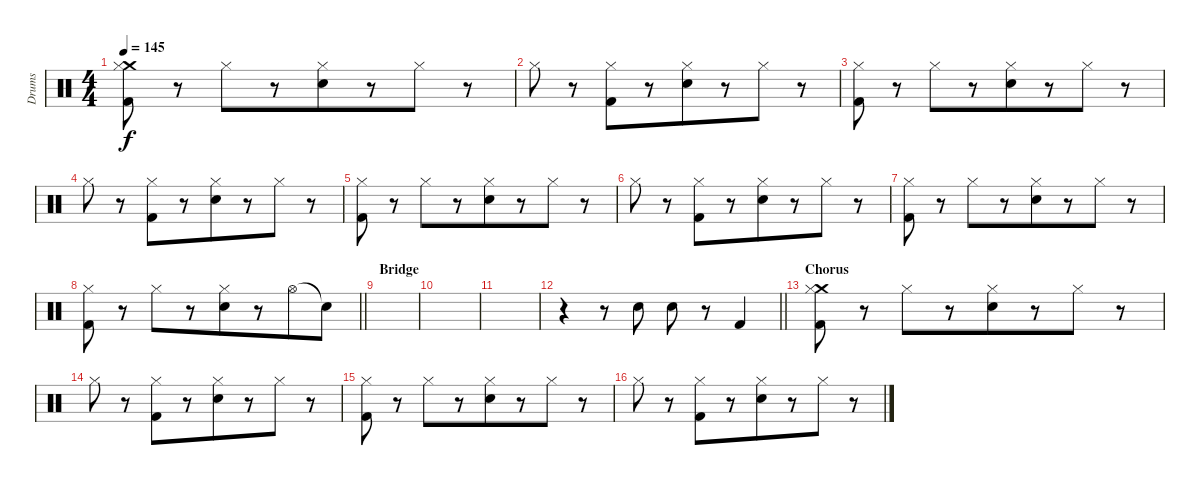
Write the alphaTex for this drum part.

\track ("Drums" "Drums") {instrument percussion bank 245}
\staff {score}
\articulation defaults
\ts (4 4)
\tempo 145
\clef neutral
\ks c
("Crash medium (hit)" "Kick (hit) 2" "Hi-Hat (closed)").8{dy f} r.8{beam merge} "Hi-Hat (closed)".8{beam merge} r.8 ("Electric Snare (hit)" "Hi-Hat (closed)").8{beam merge} r.8 "Hi-Hat (closed)".8{beam merge} r.8 |
"Hi-Hat (closed)".8 r.8{beam merge} ("Kick (hit) 2" "Hi-Hat (closed)").8{beam merge} r.8 ("Electric Snare (hit)" "Hi-Hat (closed)").8{beam merge} r.8 "Hi-Hat (closed)".8{beam merge} r.8 |
("Kick (hit) 2" "Hi-Hat (closed)").8 r.8{beam merge} "Hi-Hat (closed)".8{beam merge} r.8 ("Electric Snare (hit)" "Hi-Hat (closed)").8{beam merge} r.8 "Hi-Hat (closed)".8{beam merge} r.8 |
"Hi-Hat (closed)".8 r.8{beam merge} ("Kick (hit) 2" "Hi-Hat (closed)").8{beam merge} r.8 ("Electric Snare (hit)" "Hi-Hat (closed)").8{beam merge} r.8 "Hi-Hat (closed)".8{beam merge} r.8 |
("Kick (hit) 2" "Hi-Hat (closed)").8 r.8{beam merge} "Hi-Hat (closed)".8{beam merge} r.8 ("Electric Snare (hit)" "Hi-Hat (closed)").8{beam merge} r.8 "Hi-Hat (closed)".8{beam merge} r.8 |
"Hi-Hat (closed)".8 r.8{beam merge} ("Kick (hit) 2" "Hi-Hat (closed)").8{beam merge} r.8 ("Electric Snare (hit)" "Hi-Hat (closed)").8{beam merge} r.8 "Hi-Hat (closed)".8{beam merge} r.8 |
("Kick (hit) 2" "Hi-Hat (closed)").8 r.8{beam merge} "Hi-Hat (closed)".8{beam merge} r.8 ("Electric Snare (hit)" "Hi-Hat (closed)").8{beam merge} r.8 "Hi-Hat (closed)".8{beam merge} r.8 |
\barLineRight lightlight
("Kick (hit) 2" "Hi-Hat (closed)").8 r.8{beam merge} "Hi-Hat (closed)".8{beam merge} r.8 ("Electric Snare (hit)" "Hi-Hat (closed)").8{beam merge} r.8 "Hi-Hat (open)".8{beam merge} "Snare (hit)"{t}.8 |
\section ("" "Bridge")
|
|
|
\barLineRight lightlight
r.4 r.8 "Electric Snare (hit)".8 "Electric Snare (hit)".8 r.8{beam merge} "Kick (hit) 2".4 |
\section ("" "Chorus")
("Crash medium (hit)" "Kick (hit) 2" "Hi-Hat (closed)").8 r.8{beam merge} "Hi-Hat (closed)".8{beam merge} r.8 ("Electric Snare (hit)" "Hi-Hat (closed)").8{beam merge} r.8 "Hi-Hat (closed)".8{beam merge} r.8 |
"Hi-Hat (closed)".8 r.8{beam merge} ("Kick (hit) 2" "Hi-Hat (closed)").8{beam merge} r.8 ("Electric Snare (hit)" "Hi-Hat (closed)").8{beam merge} r.8 "Hi-Hat (closed)".8{beam merge} r.8 |
("Kick (hit) 2" "Hi-Hat (closed)").8 r.8{beam merge} "Hi-Hat (closed)".8{beam merge} r.8 ("Electric Snare (hit)" "Hi-Hat (closed)").8{beam merge} r.8 "Hi-Hat (closed)".8{beam merge} r.8 |
"Hi-Hat (closed)".8 r.8{beam merge} ("Kick (hit) 2" "Hi-Hat (closed)").8{beam merge} r.8 ("Electric Snare (hit)" "Hi-Hat (closed)").8{beam merge} r.8 "Hi-Hat (closed)".8{beam merge} r.8
